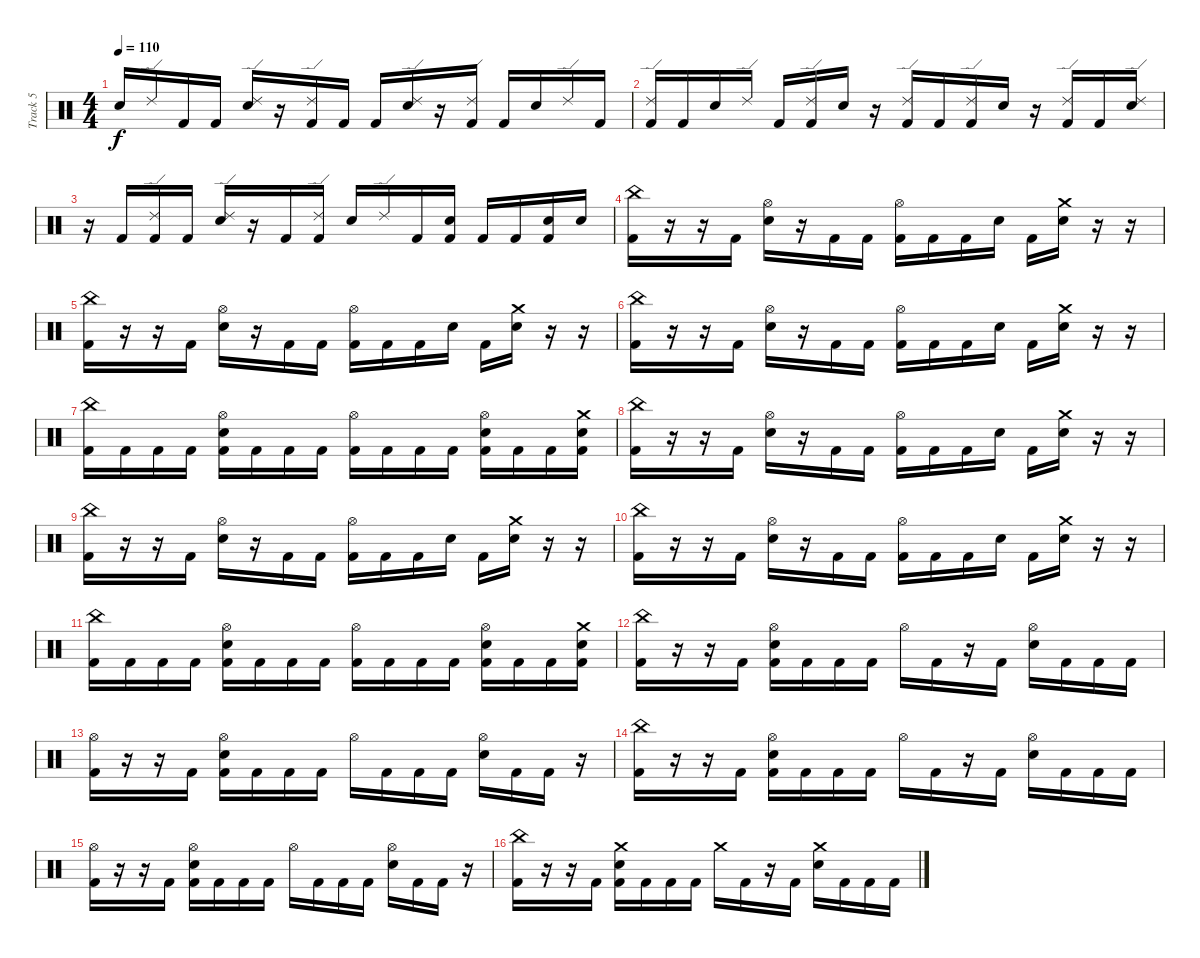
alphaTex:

\track ("Track 5" "Track 5") {instrument percussion}
\staff {score}
\articulation defaults
\ts (4 4)
\tempo 110
\clef neutral
\ks c "Electric Snare (hit)".16{dy f} "Ride (edge) 2".16 "Kick (hit) 2".16 "Kick (hit) 2".16
("Ride (edge) 2" "Electric Snare (hit)").16 r.16 ("Ride (edge) 2" "Kick (hit) 2").16 "Kick (hit) 2".16 "Kick (hit) 2".16 ("Ride (edge) 2" "Electric Snare (hit)").16 r.16 ("Ride (edge) 2" "Kick (hit) 2").16 "Kick (hit) 2".16 "Electric Snare (hit)".16 "Ride (edge) 2".16 "Kick (hit) 2".16 |
("Ride (edge) 2" "Kick (hit) 2").16 "Kick (hit) 2".16 "Electric Snare (hit)".16 "Ride (edge) 2".16 "Kick (hit) 2".16 ("Ride (edge) 2" "Kick (hit) 2").16 "Electric Snare (hit)".16 r.16 ("Ride (edge) 2" "Kick (hit) 2").16 "Kick (hit) 2".16 ("Ride (edge) 2" "Kick (hit) 2").16 "Electric Snare (hit)".16 r.16 ("Ride (edge) 2" "Kick (hit) 2").16 "Kick (hit) 2".16 ("Ride (edge) 2" "Electric Snare (hit)").16 |
r.16 "Kick (hit) 2".16 ("Ride (edge) 2" "Kick (hit) 2").16 "Kick (hit) 2".16 ("Ride (edge) 2" "Electric Snare (hit)").16 r.16 "Kick (hit) 2".16 ("Ride (edge) 2" "Kick (hit) 2").16 "Electric Snare (hit)".16 "Ride (edge) 2".16 "Kick (hit) 2".16 ("Electric Snare (hit)" "Kick (hit) 2").16 "Kick (hit) 2".16 "Kick (hit) 2".16 ("Electric Snare (hit)" "Kick (hit) 2").16 "Electric Snare (hit)".16 |
("China (hit)" "Kick (hit) 2").16 r.16 r.16 "Kick (hit) 2".16 ("Hi-Hat (open)" "Electric Snare (hit)").16 r.16 "Kick (hit) 2".16 "Kick (hit) 2".16 ("Hi-Hat (open)" "Kick (hit) 2").16 "Kick (hit) 2".16 "Kick (hit) 2".16 "Electric Snare (hit)".16 "Kick (hit) 2".16 ("Crash medium (hit)" "Electric Snare (hit)").16 r.16 r.16 |
("China (hit)" "Kick (hit) 2").16 r.16 r.16 "Kick (hit) 2".16 ("Hi-Hat (open)" "Electric Snare (hit)").16 r.16 "Kick (hit) 2".16 "Kick (hit) 2".16 ("Hi-Hat (open)" "Kick (hit) 2").16 "Kick (hit) 2".16 "Kick (hit) 2".16 "Electric Snare (hit)".16 "Kick (hit) 2".16 ("Crash medium (hit)" "Electric Snare (hit)").16 r.16 r.16 |
("China (hit)" "Kick (hit) 2").16 r.16 r.16 "Kick (hit) 2".16 ("Hi-Hat (open)" "Electric Snare (hit)").16 r.16 "Kick (hit) 2".16 "Kick (hit) 2".16 ("Hi-Hat (open)" "Kick (hit) 2").16 "Kick (hit) 2".16 "Kick (hit) 2".16 "Electric Snare (hit)".16 "Kick (hit) 2".16 ("Crash medium (hit)" "Electric Snare (hit)").16 r.16 r.16 |
("China (hit)" "Kick (hit) 2").16 "Kick (hit) 2".16 "Kick (hit) 2".16 "Kick (hit) 2".16 ("Hi-Hat (open)" "Electric Snare (hit)" "Kick (hit) 2").16 "Kick (hit) 2".16 "Kick (hit) 2".16 "Kick (hit) 2".16 ("Hi-Hat (open)" "Kick (hit) 2").16 "Kick (hit) 2".16 "Kick (hit) 2".16 "Kick (hit) 2".16 ("Hi-Hat (open)" "Electric Snare (hit)" "Kick (hit) 2").16 "Kick (hit) 2".16 "Kick (hit) 2".16 ("Crash medium (hit)" "Electric Snare (hit)" "Kick (hit) 2").16 |
("China (hit)" "Kick (hit) 2").16 r.16 r.16 "Kick (hit) 2".16 ("Hi-Hat (open)" "Electric Snare (hit)").16 r.16 "Kick (hit) 2".16 "Kick (hit) 2".16 ("Hi-Hat (open)" "Kick (hit) 2").16 "Kick (hit) 2".16 "Kick (hit) 2".16 "Electric Snare (hit)".16 "Kick (hit) 2".16 ("Crash medium (hit)" "Electric Snare (hit)").16 r.16 r.16 |
("China (hit)" "Kick (hit) 2").16 r.16 r.16 "Kick (hit) 2".16 ("Hi-Hat (open)" "Electric Snare (hit)").16 r.16 "Kick (hit) 2".16 "Kick (hit) 2".16 ("Hi-Hat (open)" "Kick (hit) 2").16 "Kick (hit) 2".16 "Kick (hit) 2".16 "Electric Snare (hit)".16 "Kick (hit) 2".16 ("Crash medium (hit)" "Electric Snare (hit)").16 r.16 r.16 |
("China (hit)" "Kick (hit) 2").16 r.16 r.16 "Kick (hit) 2".16 ("Hi-Hat (open)" "Electric Snare (hit)").16 r.16 "Kick (hit) 2".16 "Kick (hit) 2".16 ("Hi-Hat (open)" "Kick (hit) 2").16 "Kick (hit) 2".16 "Kick (hit) 2".16 "Electric Snare (hit)".16 "Kick (hit) 2".16 ("Crash medium (hit)" "Electric Snare (hit)").16 r.16 r.16 |
("China (hit)" "Kick (hit) 2").16 "Kick (hit) 2".16 "Kick (hit) 2".16 "Kick (hit) 2".16 ("Hi-Hat (open)" "Electric Snare (hit)" "Kick (hit) 2").16 "Kick (hit) 2".16 "Kick (hit) 2".16 "Kick (hit) 2".16 ("Hi-Hat (open)" "Kick (hit) 2").16 "Kick (hit) 2".16 "Kick (hit) 2".16 "Kick (hit) 2".16 ("Hi-Hat (open)" "Electric Snare (hit)" "Kick (hit) 2").16 "Kick (hit) 2".16 "Kick (hit) 2".16 ("Crash medium (hit)" "Electric Snare (hit)" "Kick (hit) 2").16 |
("China (hit)" "Kick (hit) 2").16 r.16 r.16 "Kick (hit) 2".16 ("Hi-Hat (open)" "Electric Snare (hit)" "Kick (hit) 2").16 "Kick (hit) 2".16 "Kick (hit) 2".16 "Kick (hit) 2".16 "Hi-Hat (open)".16 "Kick (hit) 2".16 r.16 "Kick (hit) 2".16 ("Hi-Hat (open)" "Electric Snare (hit)").16 "Kick (hit) 2".16 "Kick (hit) 2".16 "Kick (hit) 2".16 |
("Hi-Hat (open)" "Kick (hit) 2").16 r.16 r.16 "Kick (hit) 2".16 ("Hi-Hat (open)" "Electric Snare (hit)" "Kick (hit) 2").16 "Kick (hit) 2".16 "Kick (hit) 2".16 "Kick (hit) 2".16 "Hi-Hat (open)".16 "Kick (hit) 2".16 "Kick (hit) 2".16 "Kick (hit) 2".16 ("Hi-Hat (open)" "Electric Snare (hit)").16 "Kick (hit) 2".16 "Kick (hit) 2".16 r.16 |
("China (hit)" "Kick (hit) 2").16 r.16 r.16 "Kick (hit) 2".16 ("Hi-Hat (open)" "Electric Snare (hit)" "Kick (hit) 2").16 "Kick (hit) 2".16 "Kick (hit) 2".16 "Kick (hit) 2".16 "Hi-Hat (open)".16 "Kick (hit) 2".16 r.16 "Kick (hit) 2".16 ("Hi-Hat (open)" "Electric Snare (hit)").16 "Kick (hit) 2".16 "Kick (hit) 2".16 "Kick (hit) 2".16 |
("Hi-Hat (open)" "Kick (hit) 2").16 r.16 r.16 "Kick (hit) 2".16 ("Hi-Hat (open)" "Electric Snare (hit)" "Kick (hit) 2").16 "Kick (hit) 2".16 "Kick (hit) 2".16 "Kick (hit) 2".16 "Hi-Hat (open)".16 "Kick (hit) 2".16 "Kick (hit) 2".16 "Kick (hit) 2".16 ("Hi-Hat (open)" "Electric Snare (hit)").16 "Kick (hit) 2".16 "Kick (hit) 2".16 r.16 |
("China (hit)" "Kick (hit) 2").16 r.16 r.16 "Kick (hit) 2".16 ("Crash medium (hit)" "Electric Snare (hit)" "Kick (hit) 2").16 "Kick (hit) 2".16 "Kick (hit) 2".16 "Kick (hit) 2".16 "Crash medium (hit)".16 "Kick (hit) 2".16 r.16 "Kick (hit) 2".16 ("Crash medium (hit)" "Electric Snare (hit)").16 "Kick (hit) 2".16 "Kick (hit) 2".16 "Kick (hit) 2".16
